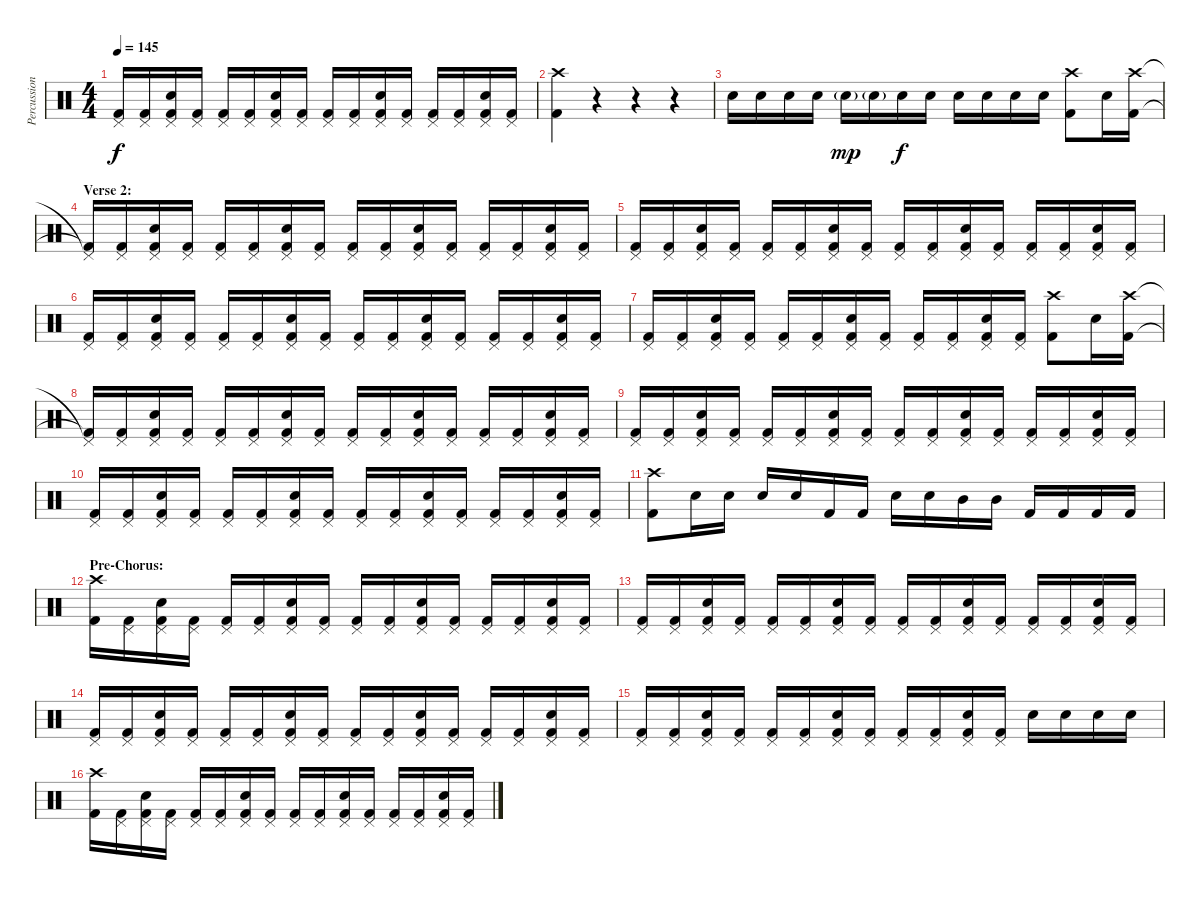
\track ("Percussion" "Percussion") {instrument percussion}
\staff {score}
\articulation defaults
\ts (4 4)
\tempo 145
\clef neutral
\ks c
("Pedal Hi-Hat (hit)" "Kick (hit) 2").16{dy f} ("Pedal Hi-Hat (hit)" "Kick (hit) 2").16 ("Pedal Hi-Hat (hit)" "Snare (hit) 2" "Kick (hit) 2").16 ("Pedal Hi-Hat (hit)" "Kick (hit) 2").16 ("Pedal Hi-Hat (hit)" "Kick (hit) 2").16 ("Pedal Hi-Hat (hit)" "Kick (hit) 2").16 ("Pedal Hi-Hat (hit)" "Snare (hit) 2" "Kick (hit) 2").16 ("Pedal Hi-Hat (hit)" "Kick (hit) 2").16 ("Pedal Hi-Hat (hit)" "Kick (hit) 2").16 ("Pedal Hi-Hat (hit)" "Kick (hit) 2").16 ("Pedal Hi-Hat (hit)" "Snare (hit) 2" "Kick (hit) 2").16 ("Pedal Hi-Hat (hit)" "Kick (hit) 2").16 ("Pedal Hi-Hat (hit)" "Kick (hit) 2").16 ("Pedal Hi-Hat (hit)" "Kick (hit) 2").16 ("Pedal Hi-Hat (hit)" "Snare (hit) 2" "Kick (hit) 2").16 ("Pedal Hi-Hat (hit)" "Kick (hit) 2").16 |
("Crash high (hit)" "Kick (hit) 2").4 r.4 r.4 r.4 |
"Snare (hit) 2".16 "Snare (hit) 2".16 "Snare (hit) 2".16 "Snare (hit) 2".16 "Snare (hit) 2"{g}.16{dy mp} "Snare (hit) 2"{g}.16 "Snare (hit) 2".16{dy f} "Snare (hit) 2".16 "Snare (hit) 2".16 "Snare (hit) 2".16 "Snare (hit) 2".16 "Snare (hit) 2".16 ("Crash high (hit)" "Kick (hit) 2").8 "Snare (hit) 2".16 ("Crash high (hit)" "Kick (hit) 2").16 |
\section ("" "Verse 2:")
("Pedal Hi-Hat (hit)"{t} "Kick (hit) 2"{t}).16 ("Pedal Hi-Hat (hit)" "Kick (hit) 2").16 ("Pedal Hi-Hat (hit)" "Snare (hit) 2" "Kick (hit) 2").16 ("Pedal Hi-Hat (hit)" "Kick (hit) 2").16 ("Pedal Hi-Hat (hit)" "Kick (hit) 2").16 ("Pedal Hi-Hat (hit)" "Kick (hit) 2").16 ("Pedal Hi-Hat (hit)" "Snare (hit) 2" "Kick (hit) 2").16 ("Pedal Hi-Hat (hit)" "Kick (hit) 2").16 ("Pedal Hi-Hat (hit)" "Kick (hit) 2").16 ("Pedal Hi-Hat (hit)" "Kick (hit) 2").16 ("Pedal Hi-Hat (hit)" "Snare (hit) 2" "Kick (hit) 2").16 ("Pedal Hi-Hat (hit)" "Kick (hit) 2").16 ("Pedal Hi-Hat (hit)" "Kick (hit) 2").16 ("Pedal Hi-Hat (hit)" "Kick (hit) 2").16 ("Pedal Hi-Hat (hit)" "Snare (hit) 2" "Kick (hit) 2").16 ("Pedal Hi-Hat (hit)" "Kick (hit) 2").16 |
("Pedal Hi-Hat (hit)" "Kick (hit) 2").16 ("Pedal Hi-Hat (hit)" "Kick (hit) 2").16 ("Pedal Hi-Hat (hit)" "Snare (hit) 2" "Kick (hit) 2").16 ("Pedal Hi-Hat (hit)" "Kick (hit) 2").16 ("Pedal Hi-Hat (hit)" "Kick (hit) 2").16 ("Pedal Hi-Hat (hit)" "Kick (hit) 2").16 ("Pedal Hi-Hat (hit)" "Snare (hit) 2" "Kick (hit) 2").16 ("Pedal Hi-Hat (hit)" "Kick (hit) 2").16 ("Pedal Hi-Hat (hit)" "Kick (hit) 2").16 ("Pedal Hi-Hat (hit)" "Kick (hit) 2").16 ("Pedal Hi-Hat (hit)" "Snare (hit) 2" "Kick (hit) 2").16 ("Pedal Hi-Hat (hit)" "Kick (hit) 2").16 ("Pedal Hi-Hat (hit)" "Kick (hit) 2").16 ("Pedal Hi-Hat (hit)" "Kick (hit) 2").16 ("Pedal Hi-Hat (hit)" "Snare (hit) 2" "Kick (hit) 2").16 ("Pedal Hi-Hat (hit)" "Kick (hit) 2").16 |
("Pedal Hi-Hat (hit)" "Kick (hit) 2").16 ("Pedal Hi-Hat (hit)" "Kick (hit) 2").16 ("Pedal Hi-Hat (hit)" "Snare (hit) 2" "Kick (hit) 2").16 ("Pedal Hi-Hat (hit)" "Kick (hit) 2").16 ("Pedal Hi-Hat (hit)" "Kick (hit) 2").16 ("Pedal Hi-Hat (hit)" "Kick (hit) 2").16 ("Pedal Hi-Hat (hit)" "Snare (hit) 2" "Kick (hit) 2").16 ("Pedal Hi-Hat (hit)" "Kick (hit) 2").16 ("Pedal Hi-Hat (hit)" "Kick (hit) 2").16 ("Pedal Hi-Hat (hit)" "Kick (hit) 2").16 ("Pedal Hi-Hat (hit)" "Snare (hit) 2" "Kick (hit) 2").16 ("Pedal Hi-Hat (hit)" "Kick (hit) 2").16 ("Pedal Hi-Hat (hit)" "Kick (hit) 2").16 ("Pedal Hi-Hat (hit)" "Kick (hit) 2").16 ("Pedal Hi-Hat (hit)" "Snare (hit) 2" "Kick (hit) 2").16 ("Pedal Hi-Hat (hit)" "Kick (hit) 2").16 |
("Pedal Hi-Hat (hit)" "Kick (hit) 2").16 ("Pedal Hi-Hat (hit)" "Kick (hit) 2").16 ("Pedal Hi-Hat (hit)" "Snare (hit) 2" "Kick (hit) 2").16 ("Pedal Hi-Hat (hit)" "Kick (hit) 2").16 ("Pedal Hi-Hat (hit)" "Kick (hit) 2").16 ("Pedal Hi-Hat (hit)" "Kick (hit) 2").16 ("Pedal Hi-Hat (hit)" "Snare (hit) 2" "Kick (hit) 2").16 ("Pedal Hi-Hat (hit)" "Kick (hit) 2").16 ("Pedal Hi-Hat (hit)" "Kick (hit) 2").16 ("Pedal Hi-Hat (hit)" "Kick (hit) 2").16 ("Pedal Hi-Hat (hit)" "Snare (hit) 2" "Kick (hit) 2").16 ("Pedal Hi-Hat (hit)" "Kick (hit) 2").16 ("Crash high (hit)" "Kick (hit) 2").8 "Snare (hit) 2".16 ("Crash high (hit)" "Kick (hit) 2").16 |
("Pedal Hi-Hat (hit)"{t} "Kick (hit) 2"{t}).16 ("Pedal Hi-Hat (hit)" "Kick (hit) 2").16 ("Pedal Hi-Hat (hit)" "Snare (hit) 2" "Kick (hit) 2").16 ("Pedal Hi-Hat (hit)" "Kick (hit) 2").16 ("Pedal Hi-Hat (hit)" "Kick (hit) 2").16 ("Pedal Hi-Hat (hit)" "Kick (hit) 2").16 ("Pedal Hi-Hat (hit)" "Snare (hit) 2" "Kick (hit) 2").16 ("Pedal Hi-Hat (hit)" "Kick (hit) 2").16 ("Pedal Hi-Hat (hit)" "Kick (hit) 2").16 ("Pedal Hi-Hat (hit)" "Kick (hit) 2").16 ("Pedal Hi-Hat (hit)" "Snare (hit) 2" "Kick (hit) 2").16 ("Pedal Hi-Hat (hit)" "Kick (hit) 2").16 ("Pedal Hi-Hat (hit)" "Kick (hit) 2").16 ("Pedal Hi-Hat (hit)" "Kick (hit) 2").16 ("Pedal Hi-Hat (hit)" "Snare (hit) 2" "Kick (hit) 2").16 ("Pedal Hi-Hat (hit)" "Kick (hit) 2").16 |
("Pedal Hi-Hat (hit)" "Kick (hit) 2").16 ("Pedal Hi-Hat (hit)" "Kick (hit) 2").16 ("Pedal Hi-Hat (hit)" "Snare (hit) 2" "Kick (hit) 2").16 ("Pedal Hi-Hat (hit)" "Kick (hit) 2").16 ("Pedal Hi-Hat (hit)" "Kick (hit) 2").16 ("Pedal Hi-Hat (hit)" "Kick (hit) 2").16 ("Pedal Hi-Hat (hit)" "Snare (hit) 2" "Kick (hit) 2").16 ("Pedal Hi-Hat (hit)" "Kick (hit) 2").16 ("Pedal Hi-Hat (hit)" "Kick (hit) 2").16 ("Pedal Hi-Hat (hit)" "Kick (hit) 2").16 ("Pedal Hi-Hat (hit)" "Snare (hit) 2" "Kick (hit) 2").16 ("Pedal Hi-Hat (hit)" "Kick (hit) 2").16 ("Pedal Hi-Hat (hit)" "Kick (hit) 2").16 ("Pedal Hi-Hat (hit)" "Kick (hit) 2").16 ("Pedal Hi-Hat (hit)" "Snare (hit) 2" "Kick (hit) 2").16 ("Pedal Hi-Hat (hit)" "Kick (hit) 2").16 |
("Pedal Hi-Hat (hit)" "Kick (hit) 2").16 ("Pedal Hi-Hat (hit)" "Kick (hit) 2").16 ("Pedal Hi-Hat (hit)" "Snare (hit) 2" "Kick (hit) 2").16 ("Pedal Hi-Hat (hit)" "Kick (hit) 2").16 ("Pedal Hi-Hat (hit)" "Kick (hit) 2").16 ("Pedal Hi-Hat (hit)" "Kick (hit) 2").16 ("Pedal Hi-Hat (hit)" "Snare (hit) 2" "Kick (hit) 2").16 ("Pedal Hi-Hat (hit)" "Kick (hit) 2").16 ("Pedal Hi-Hat (hit)" "Kick (hit) 2").16 ("Pedal Hi-Hat (hit)" "Kick (hit) 2").16 ("Pedal Hi-Hat (hit)" "Snare (hit) 2" "Kick (hit) 2").16 ("Pedal Hi-Hat (hit)" "Kick (hit) 2").16 ("Pedal Hi-Hat (hit)" "Kick (hit) 2").16 ("Pedal Hi-Hat (hit)" "Kick (hit) 2").16 ("Pedal Hi-Hat (hit)" "Snare (hit) 2" "Kick (hit) 2").16 ("Pedal Hi-Hat (hit)" "Kick (hit) 2").16 |
("Crash high (hit)" "Kick (hit) 2").8 "Snare (hit) 2".16 "Snare (hit) 2".16 "Snare (hit) 2".16 "Snare (hit) 2".16 "Kick (hit) 2".16 "Kick (hit) 2".16 "Snare (hit) 2".16 "Snare (hit) 2".16 "Mid Tom (hit)".16 "Mid Tom (hit)".16 "Kick (hit) 2".16 "Kick (hit) 2".16 "Kick (hit) 2".16 "Kick (hit) 2".16 |
\section ("" "Pre-Chorus:")
("Crash high (hit)" "Kick (hit) 2").16 ("Pedal Hi-Hat (hit)" "Kick (hit) 2").16 ("Pedal Hi-Hat (hit)" "Snare (hit) 2" "Kick (hit) 2").16 ("Pedal Hi-Hat (hit)" "Kick (hit) 2").16 ("Pedal Hi-Hat (hit)" "Kick (hit) 2").16 ("Pedal Hi-Hat (hit)" "Kick (hit) 2").16 ("Pedal Hi-Hat (hit)" "Snare (hit) 2" "Kick (hit) 2").16 ("Pedal Hi-Hat (hit)" "Kick (hit) 2").16 ("Pedal Hi-Hat (hit)" "Kick (hit) 2").16 ("Pedal Hi-Hat (hit)" "Kick (hit) 2").16 ("Pedal Hi-Hat (hit)" "Snare (hit) 2" "Kick (hit) 2").16 ("Pedal Hi-Hat (hit)" "Kick (hit) 2").16 ("Pedal Hi-Hat (hit)" "Kick (hit) 2").16 ("Pedal Hi-Hat (hit)" "Kick (hit) 2").16 ("Pedal Hi-Hat (hit)" "Snare (hit) 2" "Kick (hit) 2").16 ("Pedal Hi-Hat (hit)" "Kick (hit) 2").16 |
("Pedal Hi-Hat (hit)" "Kick (hit) 2").16 ("Pedal Hi-Hat (hit)" "Kick (hit) 2").16 ("Pedal Hi-Hat (hit)" "Snare (hit) 2" "Kick (hit) 2").16 ("Pedal Hi-Hat (hit)" "Kick (hit) 2").16 ("Pedal Hi-Hat (hit)" "Kick (hit) 2").16 ("Pedal Hi-Hat (hit)" "Kick (hit) 2").16 ("Pedal Hi-Hat (hit)" "Snare (hit) 2" "Kick (hit) 2").16 ("Pedal Hi-Hat (hit)" "Kick (hit) 2").16 ("Pedal Hi-Hat (hit)" "Kick (hit) 2").16 ("Pedal Hi-Hat (hit)" "Kick (hit) 2").16 ("Pedal Hi-Hat (hit)" "Snare (hit) 2" "Kick (hit) 2").16 ("Pedal Hi-Hat (hit)" "Kick (hit) 2").16 ("Pedal Hi-Hat (hit)" "Kick (hit) 2").16 ("Pedal Hi-Hat (hit)" "Kick (hit) 2").16 ("Pedal Hi-Hat (hit)" "Snare (hit) 2" "Kick (hit) 2").16 ("Pedal Hi-Hat (hit)" "Kick (hit) 2").16 |
("Pedal Hi-Hat (hit)" "Kick (hit) 2").16 ("Pedal Hi-Hat (hit)" "Kick (hit) 2").16 ("Pedal Hi-Hat (hit)" "Snare (hit) 2" "Kick (hit) 2").16 ("Pedal Hi-Hat (hit)" "Kick (hit) 2").16 ("Pedal Hi-Hat (hit)" "Kick (hit) 2").16 ("Pedal Hi-Hat (hit)" "Kick (hit) 2").16 ("Pedal Hi-Hat (hit)" "Snare (hit) 2" "Kick (hit) 2").16 ("Pedal Hi-Hat (hit)" "Kick (hit) 2").16 ("Pedal Hi-Hat (hit)" "Kick (hit) 2").16 ("Pedal Hi-Hat (hit)" "Kick (hit) 2").16 ("Pedal Hi-Hat (hit)" "Snare (hit) 2" "Kick (hit) 2").16 ("Pedal Hi-Hat (hit)" "Kick (hit) 2").16 ("Pedal Hi-Hat (hit)" "Kick (hit) 2").16 ("Pedal Hi-Hat (hit)" "Kick (hit) 2").16 ("Pedal Hi-Hat (hit)" "Snare (hit) 2" "Kick (hit) 2").16 ("Pedal Hi-Hat (hit)" "Kick (hit) 2").16 |
("Pedal Hi-Hat (hit)" "Kick (hit) 2").16 ("Pedal Hi-Hat (hit)" "Kick (hit) 2").16 ("Pedal Hi-Hat (hit)" "Snare (hit) 2" "Kick (hit) 2").16 ("Pedal Hi-Hat (hit)" "Kick (hit) 2").16 ("Pedal Hi-Hat (hit)" "Kick (hit) 2").16 ("Pedal Hi-Hat (hit)" "Kick (hit) 2").16 ("Pedal Hi-Hat (hit)" "Snare (hit) 2" "Kick (hit) 2").16 ("Pedal Hi-Hat (hit)" "Kick (hit) 2").16 ("Pedal Hi-Hat (hit)" "Kick (hit) 2").16 ("Pedal Hi-Hat (hit)" "Kick (hit) 2").16 ("Pedal Hi-Hat (hit)" "Snare (hit) 2" "Kick (hit) 2").16 ("Pedal Hi-Hat (hit)" "Kick (hit) 2").16 "Snare (hit) 2".16 "Snare (hit) 2".16 "Snare (hit) 2".16 "Snare (hit) 2".16 |
("Crash high (hit)" "Kick (hit) 2").16 ("Pedal Hi-Hat (hit)" "Kick (hit) 2").16 ("Pedal Hi-Hat (hit)" "Snare (hit) 2" "Kick (hit) 2").16 ("Pedal Hi-Hat (hit)" "Kick (hit) 2").16 ("Pedal Hi-Hat (hit)" "Kick (hit) 2").16 ("Pedal Hi-Hat (hit)" "Kick (hit) 2").16 ("Pedal Hi-Hat (hit)" "Snare (hit) 2" "Kick (hit) 2").16 ("Pedal Hi-Hat (hit)" "Kick (hit) 2").16 ("Pedal Hi-Hat (hit)" "Kick (hit) 2").16 ("Pedal Hi-Hat (hit)" "Kick (hit) 2").16 ("Pedal Hi-Hat (hit)" "Snare (hit) 2" "Kick (hit) 2").16 ("Pedal Hi-Hat (hit)" "Kick (hit) 2").16 ("Pedal Hi-Hat (hit)" "Kick (hit) 2").16 ("Pedal Hi-Hat (hit)" "Kick (hit) 2").16 ("Pedal Hi-Hat (hit)" "Snare (hit) 2" "Kick (hit) 2").16 ("Pedal Hi-Hat (hit)" "Kick (hit) 2").16
